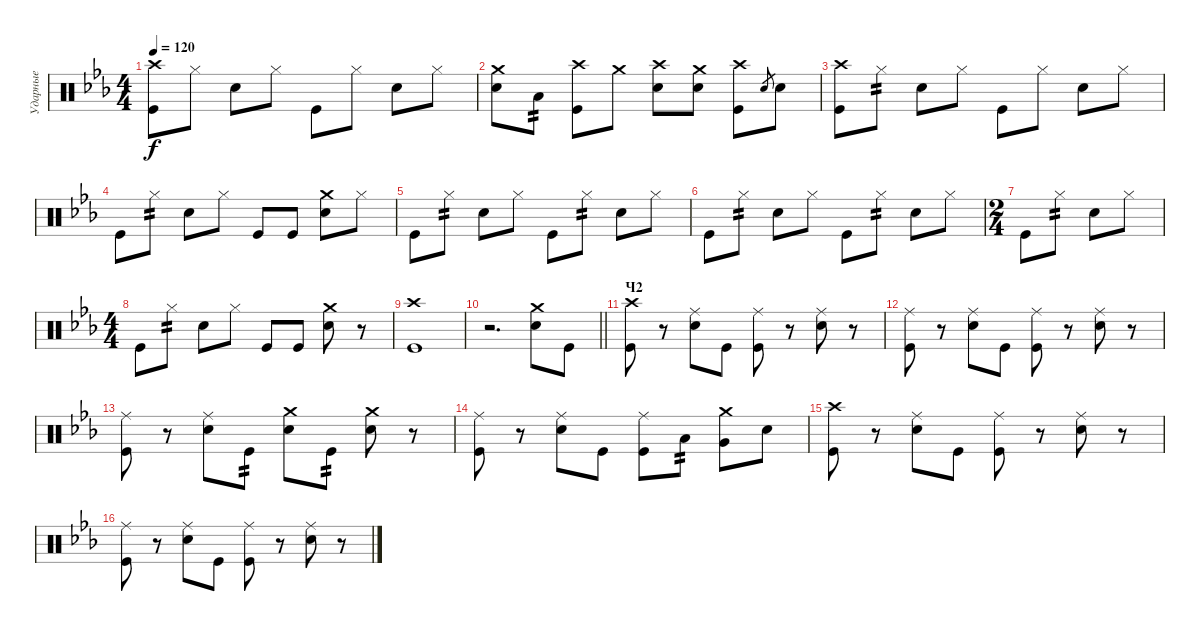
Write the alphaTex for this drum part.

\track ("Ударные" "Ударные") {instrument percussion}
\staff {score}
\articulation defaults
\ts (4 4)
\tempo 120
\clef neutral
\ks cminor
("Crash high (hit)" "Kick (hit)").8{dy f} "Hi-Hat (closed)".8 "Snare (hit) 2".8 "Hi-Hat (closed)".8 "Kick (hit)".8 "Hi-Hat (closed)".8 "Snare (hit) 2".8 "Hi-Hat (closed)".8 |
("Crash medium (hit)" "Snare (hit) 2").8 "Low Tom (hit)".8{tp 2} ("Crash high (hit)" "Kick (hit)").8 "Crash medium (hit)".8 ("Crash high (hit)" "Snare (hit) 2").8 ("Crash medium (hit)" "Snare (hit) 2").8 ("Crash high (hit)" "Kick (hit)").8 "Snare (hit) 2".8{gr} "Snare (hit) 2".8 |
("Crash high (hit)" "Kick (hit)").8 "Hi-Hat (closed)".8{tp 2} "Snare (hit) 2".8 "Hi-Hat (closed)".8 "Kick (hit)".8 "Hi-Hat (closed)".8 "Snare (hit) 2".8 "Hi-Hat (closed)".8 |
"Kick (hit)".8 "Hi-Hat (closed)".8{tp 2} "Snare (hit) 2".8 "Hi-Hat (closed)".8 "Kick (hit)".8 "Kick (hit)".8 ("Crash medium (hit)" "Snare (hit) 2").8 "Hi-Hat (closed)".8 |
"Kick (hit)".8 "Hi-Hat (closed)".8{tp 2} "Snare (hit) 2".8 "Hi-Hat (closed)".8 "Kick (hit)".8 "Hi-Hat (closed)".8{tp 2} "Snare (hit) 2".8 "Hi-Hat (closed)".8 |
"Kick (hit)".8 "Hi-Hat (closed)".8{tp 2} "Snare (hit) 2".8 "Hi-Hat (closed)".8 "Kick (hit)".8 "Hi-Hat (closed)".8{tp 2} "Snare (hit) 2".8 "Hi-Hat (closed)".8 |
\ts (2 4)
"Kick (hit)".8 "Hi-Hat (closed)".8{tp 2} "Snare (hit) 2".8 "Hi-Hat (closed)".8 |
\ts (4 4)
"Kick (hit)".8 "Hi-Hat (closed)".8{tp 2} "Snare (hit) 2".8 "Hi-Hat (closed)".8 "Kick (hit)".8 "Kick (hit)".8 ("Crash medium (hit)" "Snare (hit) 2").8 r.8 |
("Crash high (hit)" "Kick (hit)").1 |
\barLineRight lightlight
r.2{d} ("Crash medium (hit)" "Snare (hit) 2").8 "Kick (hit)".8 |
\section ("" "Ч2")
("Crash high (hit)" "Kick (hit)").8 r.8 ("Ride (middle)" "Snare (hit) 2").8 "Kick (hit)".8 ("Ride (middle)" "Kick (hit)").8 r.8 ("Ride (middle)" "Snare (hit) 2").8 r.8 |
("Ride (middle)" "Kick (hit)").8 r.8 ("Ride (middle)" "Snare (hit) 2").8 "Kick (hit)".8 ("Ride (middle)" "Kick (hit)").8 r.8 ("Ride (middle)" "Snare (hit) 2").8 r.8 |
("Ride (middle)" "Kick (hit)").8 r.8 ("Ride (middle)" "Snare (hit) 2").8 "Kick (hit)".8{tp 2} ("Crash medium (hit)" "Snare (hit) 2").8 "Kick (hit)".8{tp 2} ("Crash medium (hit)" "Snare (hit) 2").8 r.8 |
("Ride (middle)" "Kick (hit)").8 r.8 ("Ride (middle)" "Snare (hit) 2").8 "Kick (hit)".8 ("Ride (middle)" "Kick (hit)").8 "Low Tom (hit)".8{tp 2} ("Crash medium (hit)" "Very Low Tom (hit)").8 "Snare (hit) 2".8 |
("Crash high (hit)" "Kick (hit)").8 r.8 ("Ride (middle)" "Snare (hit) 2").8 "Kick (hit)".8 ("Ride (middle)" "Kick (hit)").8 r.8 ("Ride (middle)" "Snare (hit) 2").8 r.8 |
("Ride (middle)" "Kick (hit)").8 r.8 ("Ride (middle)" "Snare (hit) 2").8 "Kick (hit)".8 ("Ride (middle)" "Kick (hit)").8 r.8 ("Ride (middle)" "Snare (hit) 2").8 r.8
